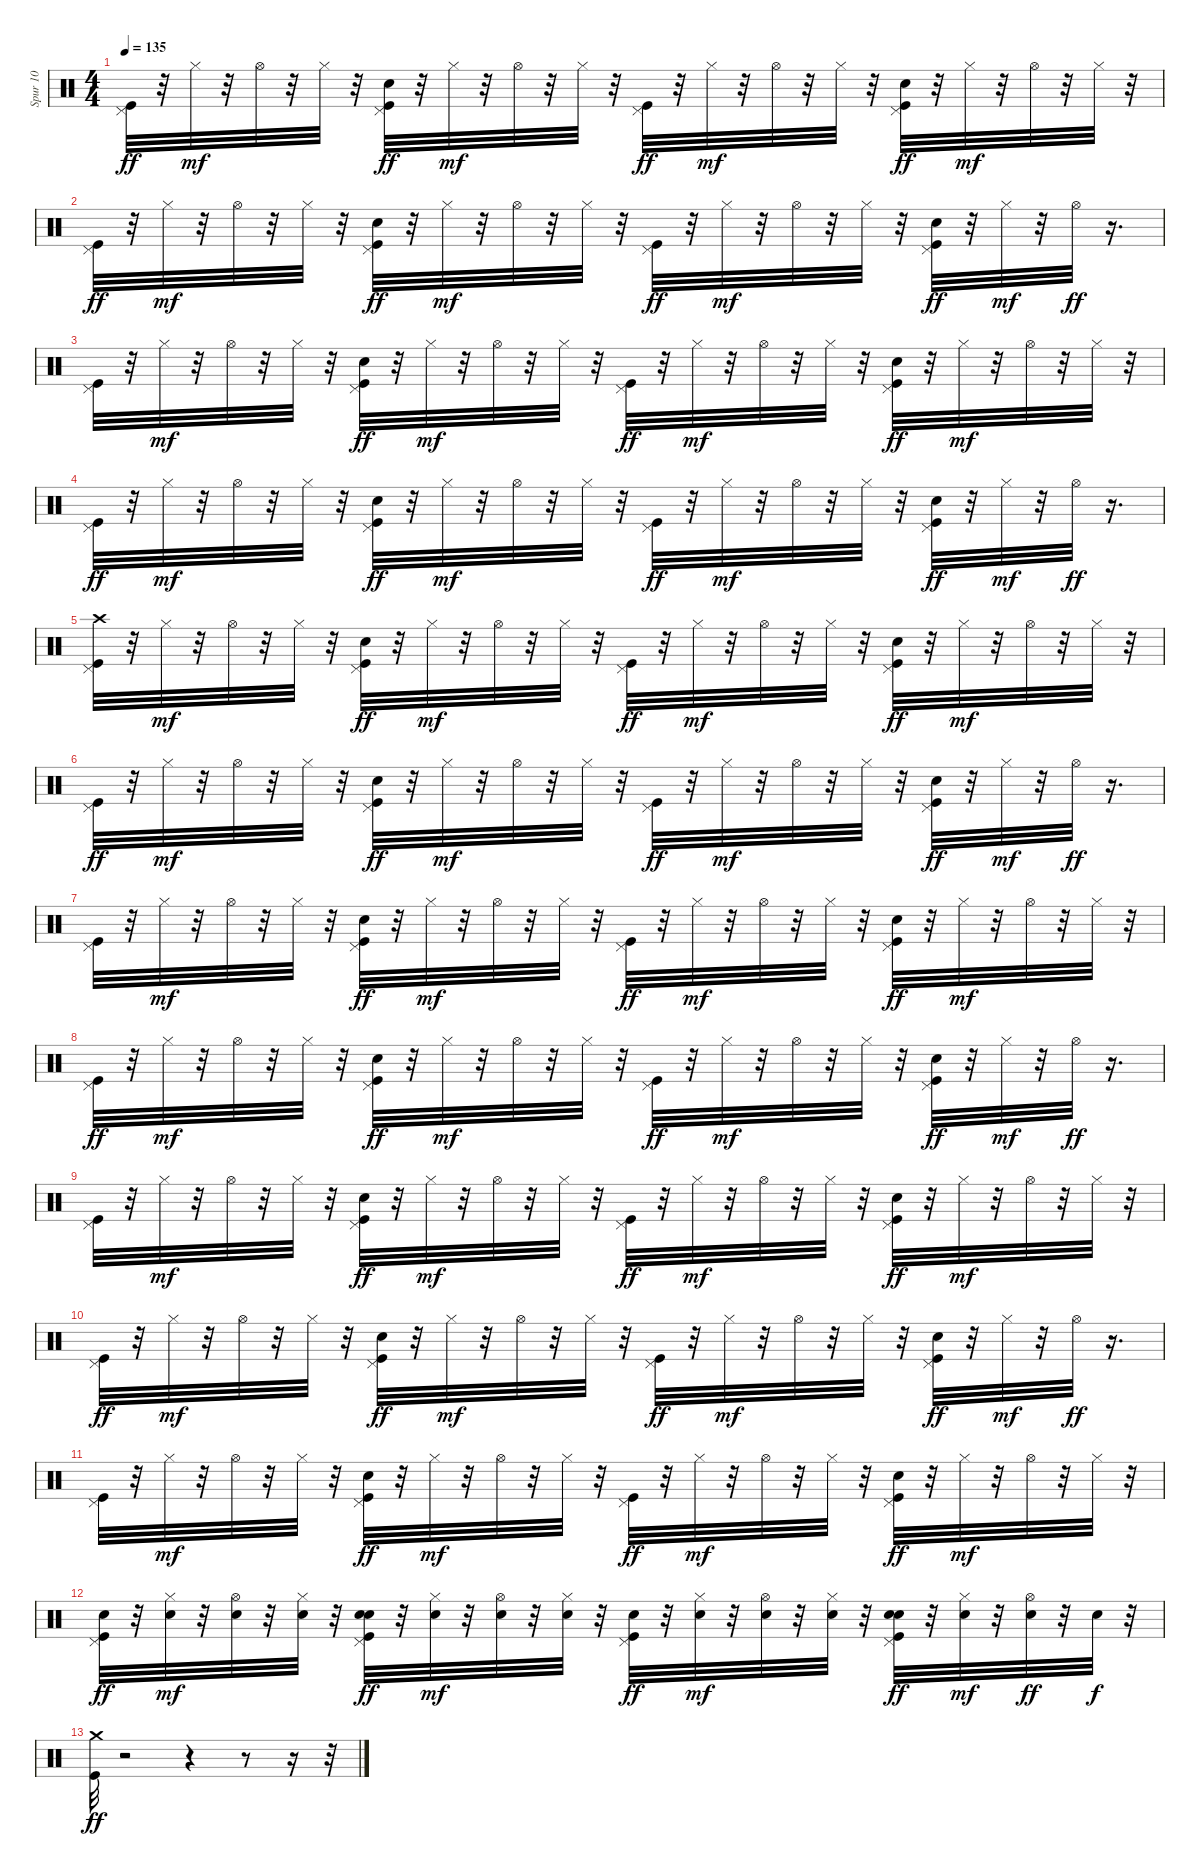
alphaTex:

\track ("Spur 10" "Spur 10") {instrument percussion}
\staff {score}
\articulation defaults
\ts (4 4)
\tempo 135
\clef neutral
\ks c
("Kick (hit)" "Pedal Hi-Hat (hit)").32{dy ff} r.32 "Hi-Hat (closed)".32{dy mf} r.32 "Hi-Hat (open)".32 r.32 "Hi-Hat (closed)".32 r.32 ("Kick (hit)" "Hand Clap (hit)" "Pedal Hi-Hat (hit)").32{dy ff} r.32 "Hi-Hat (closed)".32{dy mf} r.32 "Hi-Hat (open)".32 r.32 "Hi-Hat (closed)".32 r.32 ("Kick (hit)" "Pedal Hi-Hat (hit)").32{dy ff} r.32 "Hi-Hat (closed)".32{dy mf} r.32 "Hi-Hat (open)".32 r.32 "Hi-Hat (closed)".32 r.32 ("Kick (hit)" "Hand Clap (hit)" "Pedal Hi-Hat (hit)").32{dy ff} r.32 "Hi-Hat (closed)".32{dy mf} r.32 "Hi-Hat (open)".32 r.32 "Hi-Hat (closed)".32 r.32 |
("Kick (hit)" "Pedal Hi-Hat (hit)").32{dy ff} r.32 "Hi-Hat (closed)".32{dy mf} r.32 "Hi-Hat (open)".32 r.32 "Hi-Hat (closed)".32 r.32 ("Kick (hit)" "Hand Clap (hit)" "Pedal Hi-Hat (hit)").32{dy ff} r.32 "Hi-Hat (closed)".32{dy mf} r.32 "Hi-Hat (open)".32 r.32 "Hi-Hat (closed)".32 r.32 ("Kick (hit)" "Pedal Hi-Hat (hit)").32{dy ff} r.32 "Hi-Hat (closed)".32{dy mf} r.32 "Hi-Hat (open)".32 r.32 "Hi-Hat (closed)".32 r.32 ("Kick (hit)" "Hand Clap (hit)" "Pedal Hi-Hat (hit)").32{dy ff} r.32 "Hi-Hat (closed)".32{dy mf} r.32 "Hi-Hat (open)".32{dy ff} r.16{d} |
("Kick (hit)" "Pedal Hi-Hat (hit)").32 r.32 "Hi-Hat (closed)".32{dy mf} r.32 "Hi-Hat (open)".32 r.32 "Hi-Hat (closed)".32 r.32 ("Kick (hit)" "Hand Clap (hit)" "Pedal Hi-Hat (hit)").32{dy ff} r.32 "Hi-Hat (closed)".32{dy mf} r.32 "Hi-Hat (open)".32 r.32 "Hi-Hat (closed)".32 r.32 ("Kick (hit)" "Pedal Hi-Hat (hit)").32{dy ff} r.32 "Hi-Hat (closed)".32{dy mf} r.32 "Hi-Hat (open)".32 r.32 "Hi-Hat (closed)".32 r.32 ("Kick (hit)" "Hand Clap (hit)" "Pedal Hi-Hat (hit)").32{dy ff} r.32 "Hi-Hat (closed)".32{dy mf} r.32 "Hi-Hat (open)".32 r.32 "Hi-Hat (closed)".32 r.32 |
("Kick (hit)" "Pedal Hi-Hat (hit)").32{dy ff} r.32 "Hi-Hat (closed)".32{dy mf} r.32 "Hi-Hat (open)".32 r.32 "Hi-Hat (closed)".32 r.32 ("Kick (hit)" "Hand Clap (hit)" "Pedal Hi-Hat (hit)").32{dy ff} r.32 "Hi-Hat (closed)".32{dy mf} r.32 "Hi-Hat (open)".32 r.32 "Hi-Hat (closed)".32 r.32 ("Kick (hit)" "Pedal Hi-Hat (hit)").32{dy ff} r.32 "Hi-Hat (closed)".32{dy mf} r.32 "Hi-Hat (open)".32 r.32 "Hi-Hat (closed)".32 r.32 ("Kick (hit)" "Hand Clap (hit)" "Pedal Hi-Hat (hit)").32{dy ff} r.32 "Hi-Hat (closed)".32{dy mf} r.32 "Hi-Hat (open)".32{dy ff} r.16{d} |
("Crash high (hit)" "Kick (hit)" "Pedal Hi-Hat (hit)").32 r.32 "Hi-Hat (closed)".32{dy mf} r.32 "Hi-Hat (open)".32 r.32 "Hi-Hat (closed)".32 r.32 ("Kick (hit)" "Hand Clap (hit)" "Pedal Hi-Hat (hit)").32{dy ff} r.32 "Hi-Hat (closed)".32{dy mf} r.32 "Hi-Hat (open)".32 r.32 "Hi-Hat (closed)".32 r.32 ("Kick (hit)" "Pedal Hi-Hat (hit)").32{dy ff} r.32 "Hi-Hat (closed)".32{dy mf} r.32 "Hi-Hat (open)".32 r.32 "Hi-Hat (closed)".32 r.32 ("Kick (hit)" "Hand Clap (hit)" "Pedal Hi-Hat (hit)").32{dy ff} r.32 "Hi-Hat (closed)".32{dy mf} r.32 "Hi-Hat (open)".32 r.32 "Hi-Hat (closed)".32 r.32 |
("Kick (hit)" "Pedal Hi-Hat (hit)").32{dy ff} r.32 "Hi-Hat (closed)".32{dy mf} r.32 "Hi-Hat (open)".32 r.32 "Hi-Hat (closed)".32 r.32 ("Kick (hit)" "Hand Clap (hit)" "Pedal Hi-Hat (hit)").32{dy ff} r.32 "Hi-Hat (closed)".32{dy mf} r.32 "Hi-Hat (open)".32 r.32 "Hi-Hat (closed)".32 r.32 ("Kick (hit)" "Pedal Hi-Hat (hit)").32{dy ff} r.32 "Hi-Hat (closed)".32{dy mf} r.32 "Hi-Hat (open)".32 r.32 "Hi-Hat (closed)".32 r.32 ("Kick (hit)" "Hand Clap (hit)" "Pedal Hi-Hat (hit)").32{dy ff} r.32 "Hi-Hat (closed)".32{dy mf} r.32 "Hi-Hat (open)".32{dy ff} r.16{d} |
("Kick (hit)" "Pedal Hi-Hat (hit)").32 r.32 "Hi-Hat (closed)".32{dy mf} r.32 "Hi-Hat (open)".32 r.32 "Hi-Hat (closed)".32 r.32 ("Kick (hit)" "Hand Clap (hit)" "Pedal Hi-Hat (hit)").32{dy ff} r.32 "Hi-Hat (closed)".32{dy mf} r.32 "Hi-Hat (open)".32 r.32 "Hi-Hat (closed)".32 r.32 ("Kick (hit)" "Pedal Hi-Hat (hit)").32{dy ff} r.32 "Hi-Hat (closed)".32{dy mf} r.32 "Hi-Hat (open)".32 r.32 "Hi-Hat (closed)".32 r.32 ("Kick (hit)" "Hand Clap (hit)" "Pedal Hi-Hat (hit)").32{dy ff} r.32 "Hi-Hat (closed)".32{dy mf} r.32 "Hi-Hat (open)".32 r.32 "Hi-Hat (closed)".32 r.32 |
("Kick (hit)" "Pedal Hi-Hat (hit)").32{dy ff} r.32 "Hi-Hat (closed)".32{dy mf} r.32 "Hi-Hat (open)".32 r.32 "Hi-Hat (closed)".32 r.32 ("Kick (hit)" "Hand Clap (hit)" "Pedal Hi-Hat (hit)").32{dy ff} r.32 "Hi-Hat (closed)".32{dy mf} r.32 "Hi-Hat (open)".32 r.32 "Hi-Hat (closed)".32 r.32 ("Kick (hit)" "Pedal Hi-Hat (hit)").32{dy ff} r.32 "Hi-Hat (closed)".32{dy mf} r.32 "Hi-Hat (open)".32 r.32 "Hi-Hat (closed)".32 r.32 ("Kick (hit)" "Hand Clap (hit)" "Pedal Hi-Hat (hit)").32{dy ff} r.32 "Hi-Hat (closed)".32{dy mf} r.32 "Hi-Hat (open)".32{dy ff} r.16{d} |
("Kick (hit)" "Pedal Hi-Hat (hit)").32 r.32 "Hi-Hat (closed)".32{dy mf} r.32 "Hi-Hat (open)".32 r.32 "Hi-Hat (closed)".32 r.32 ("Kick (hit)" "Hand Clap (hit)" "Pedal Hi-Hat (hit)").32{dy ff} r.32 "Hi-Hat (closed)".32{dy mf} r.32 "Hi-Hat (open)".32 r.32 "Hi-Hat (closed)".32 r.32 ("Kick (hit)" "Pedal Hi-Hat (hit)").32{dy ff} r.32 "Hi-Hat (closed)".32{dy mf} r.32 "Hi-Hat (open)".32 r.32 "Hi-Hat (closed)".32 r.32 ("Kick (hit)" "Hand Clap (hit)" "Pedal Hi-Hat (hit)").32{dy ff} r.32 "Hi-Hat (closed)".32{dy mf} r.32 "Hi-Hat (open)".32 r.32 "Hi-Hat (closed)".32 r.32 |
("Kick (hit)" "Pedal Hi-Hat (hit)").32{dy ff} r.32 "Hi-Hat (closed)".32{dy mf} r.32 "Hi-Hat (open)".32 r.32 "Hi-Hat (closed)".32 r.32 ("Kick (hit)" "Hand Clap (hit)" "Pedal Hi-Hat (hit)").32{dy ff} r.32 "Hi-Hat (closed)".32{dy mf} r.32 "Hi-Hat (open)".32 r.32 "Hi-Hat (closed)".32 r.32 ("Kick (hit)" "Pedal Hi-Hat (hit)").32{dy ff} r.32 "Hi-Hat (closed)".32{dy mf} r.32 "Hi-Hat (open)".32 r.32 "Hi-Hat (closed)".32 r.32 ("Kick (hit)" "Hand Clap (hit)" "Pedal Hi-Hat (hit)").32{dy ff} r.32 "Hi-Hat (closed)".32{dy mf} r.32 "Hi-Hat (open)".32{dy ff} r.16{d} |
("Kick (hit)" "Pedal Hi-Hat (hit)").32 r.32 "Hi-Hat (closed)".32{dy mf} r.32 "Hi-Hat (open)".32 r.32 "Hi-Hat (closed)".32 r.32 ("Kick (hit)" "Hand Clap (hit)" "Pedal Hi-Hat (hit)").32{dy ff} r.32 "Hi-Hat (closed)".32{dy mf} r.32 "Hi-Hat (open)".32 r.32 "Hi-Hat (closed)".32 r.32 ("Kick (hit)" "Pedal Hi-Hat (hit)").32{dy ff} r.32 "Hi-Hat (closed)".32{dy mf} r.32 "Hi-Hat (open)".32 r.32 "Hi-Hat (closed)".32 r.32 ("Kick (hit)" "Hand Clap (hit)" "Pedal Hi-Hat (hit)").32{dy ff} r.32 "Hi-Hat (closed)".32{dy mf} r.32 "Hi-Hat (open)".32 r.32 "Hi-Hat (closed)".32 r.32 |
("Snare (hit) 2" "Kick (hit)" "Pedal Hi-Hat (hit)").32{dy ff} r.32 ("Snare (hit) 2" "Hi-Hat (closed)").32{dy mf} r.32 ("Snare (hit) 2" "Hi-Hat (open)").32 r.32 ("Snare (hit) 2" "Hi-Hat (closed)").32 r.32 ("Snare (hit) 2" "Kick (hit)" "Hand Clap (hit)" "Pedal Hi-Hat (hit)").32{dy ff} r.32 ("Snare (hit) 2" "Hi-Hat (closed)").32{dy mf} r.32 ("Snare (hit) 2" "Hi-Hat (open)").32 r.32 ("Snare (hit) 2" "Hi-Hat (closed)").32 r.32 ("Snare (hit) 2" "Kick (hit)" "Pedal Hi-Hat (hit)").32{dy ff} r.32 ("Snare (hit) 2" "Hi-Hat (closed)").32{dy mf} r.32 ("Snare (hit) 2" "Hi-Hat (open)").32 r.32 ("Snare (hit) 2" "Hi-Hat (closed)").32 r.32 ("Snare (hit) 2" "Kick (hit)" "Hand Clap (hit)" "Pedal Hi-Hat (hit)").32{dy ff} r.32 ("Snare (hit) 2" "Hi-Hat (closed)").32{dy mf} r.32 ("Snare (hit) 2" "Hi-Hat (open)").32{dy ff} r.32 "Snare (hit) 2".32{dy f} r.32 |
("Crash medium (hit)" "Kick (hit)").32{dy ff} r.2 r.4 r.8 r.16 r.32
